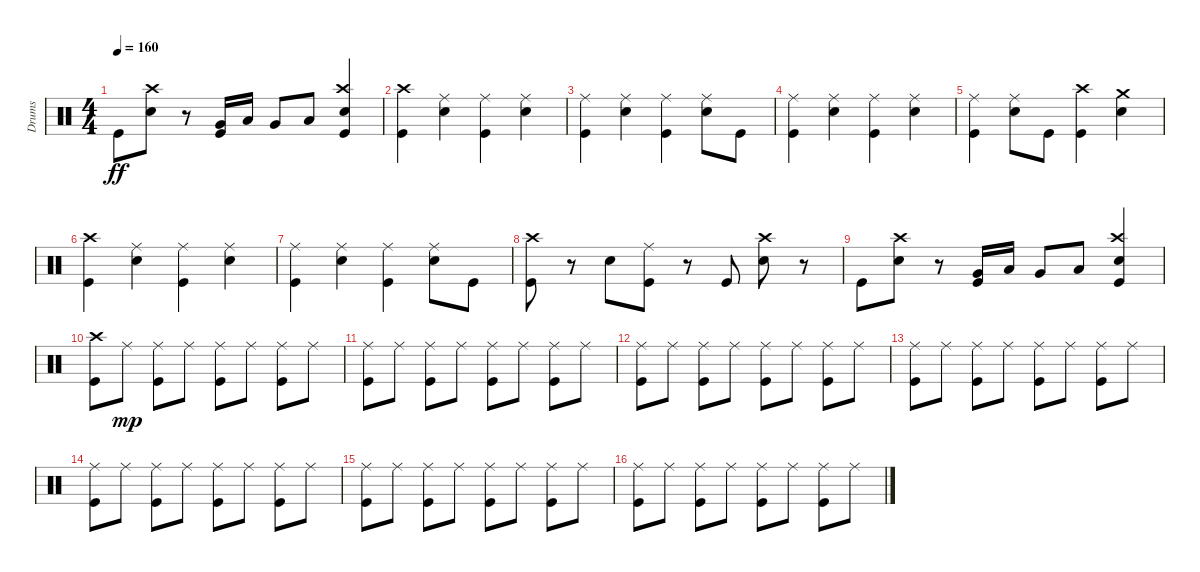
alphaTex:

\track ("Drums" "Drums") {instrument percussion}
\staff {score}
\articulation defaults
\ts (4 4)
\tempo 160
\clef neutral
\ks c "Kick (hit)".8{dy ff}
("Crash high (hit)" "Snare (hit) 2").8 r.8 ("Very Low Tom (hit)" "Kick (hit)").16 "Low Floor Tom (hit)".16 "Very Low Tom (hit)".8 "Low Floor Tom (hit)".8 ("Crash high (hit)" "Snare (hit) 2" "Kick (hit)").4 |
("Crash high (hit)" "Kick (hit)").4 ("Ride (middle)" "Snare (hit) 2").4 ("Ride (middle)" "Kick (hit)").4 ("Ride (middle)" "Snare (hit) 2").4 |
("Ride (middle)" "Kick (hit)").4 ("Ride (middle)" "Snare (hit) 2").4 ("Ride (middle)" "Kick (hit)").4 ("Ride (middle)" "Snare (hit) 2").8 "Kick (hit)".8 |
("Ride (middle)" "Kick (hit)").4 ("Ride (middle)" "Snare (hit) 2").4 ("Ride (middle)" "Kick (hit)").4 ("Ride (middle)" "Snare (hit) 2").4 |
("Ride (middle)" "Kick (hit)").4 ("Ride (middle)" "Snare (hit) 2").8 "Kick (hit)".8 ("Crash high (hit)" "Kick (hit)").4 ("Crash medium (hit)" "Snare (hit) 2").4 |
("Crash high (hit)" "Kick (hit)").4 ("Ride (middle)" "Snare (hit) 2").4 ("Ride (middle)" "Kick (hit)").4 ("Ride (middle)" "Snare (hit) 2").4 |
("Ride (middle)" "Kick (hit)").4 ("Ride (middle)" "Snare (hit) 2").4 ("Ride (middle)" "Kick (hit)").4 ("Ride (middle)" "Snare (hit) 2").8 "Kick (hit)".8 |
("Crash high (hit)" "Kick (hit)").8 r.8 "Snare (hit) 2".8 ("Ride (middle)" "Kick (hit)").8 r.8 "Kick (hit)".8 ("Crash high (hit)" "Snare (hit) 2").8 r.8 |
"Kick (hit)".8 ("Crash high (hit)" "Snare (hit) 2").8 r.8 ("Very Low Tom (hit)" "Kick (hit)").16 "Low Floor Tom (hit)".16 "Very Low Tom (hit)".8 "Low Floor Tom (hit)".8 ("Crash high (hit)" "Snare (hit) 2" "Kick (hit)").4 |
("Crash high (hit)" "Kick (hit)").8 "Ride (middle)".8{dy mp} ("Ride (middle)" "Kick (hit)").8 "Ride (middle)".8 ("Ride (middle)" "Kick (hit)").8 "Ride (middle)".8 ("Ride (middle)" "Kick (hit)").8 "Ride (middle)".8 |
("Ride (middle)" "Kick (hit)").8 "Ride (middle)".8 ("Ride (middle)" "Kick (hit)").8 "Ride (middle)".8 ("Ride (middle)" "Kick (hit)").8 "Ride (middle)".8 ("Ride (middle)" "Kick (hit)").8 "Ride (middle)".8 |
("Ride (middle)" "Kick (hit)").8 "Ride (middle)".8 ("Ride (middle)" "Kick (hit)").8 "Ride (middle)".8 ("Ride (middle)" "Kick (hit)").8 "Ride (middle)".8 ("Ride (middle)" "Kick (hit)").8 "Ride (middle)".8 |
("Ride (middle)" "Kick (hit)").8 "Ride (middle)".8 ("Ride (middle)" "Kick (hit)").8 "Ride (middle)".8 ("Ride (middle)" "Kick (hit)").8 "Ride (middle)".8 ("Ride (middle)" "Kick (hit)").8 "Ride (middle)".8 |
("Ride (middle)" "Kick (hit)").8 "Ride (middle)".8 ("Ride (middle)" "Kick (hit)").8 "Ride (middle)".8 ("Ride (middle)" "Kick (hit)").8 "Ride (middle)".8 ("Ride (middle)" "Kick (hit)").8 "Ride (middle)".8 |
("Ride (middle)" "Kick (hit)").8 "Ride (middle)".8 ("Ride (middle)" "Kick (hit)").8 "Ride (middle)".8 ("Ride (middle)" "Kick (hit)").8 "Ride (middle)".8 ("Ride (middle)" "Kick (hit)").8 "Ride (middle)".8 |
("Ride (middle)" "Kick (hit)").8 "Ride (middle)".8 ("Ride (middle)" "Kick (hit)").8 "Ride (middle)".8 ("Ride (middle)" "Kick (hit)").8 "Ride (middle)".8 ("Ride (middle)" "Kick (hit)").8 "Ride (middle)".8
